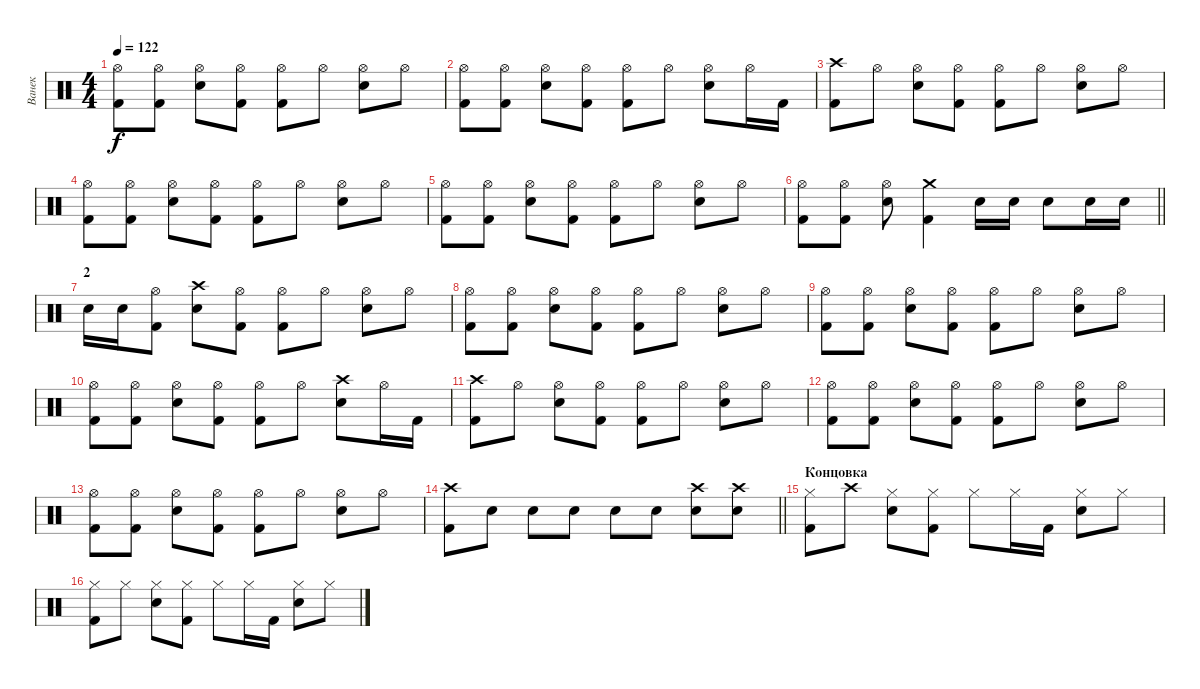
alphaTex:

\track ("Ванек" "Ванек") {instrument percussion}
\staff {score}
\articulation defaults
\ts (4 4)
\tempo 122
\clef neutral
\ks c
("Hi-Hat (open)" "Kick (hit) 2").8{dy f} ("Hi-Hat (open)" "Kick (hit) 2").8 ("Hi-Hat (open)" "Electric Snare (hit)").8 ("Hi-Hat (open)" "Kick (hit) 2").8 ("Hi-Hat (open)" "Kick (hit) 2").8 "Hi-Hat (open)".8 ("Hi-Hat (open)" "Electric Snare (hit)").8 "Hi-Hat (open)".8 |
("Hi-Hat (open)" "Kick (hit) 2").8 ("Hi-Hat (open)" "Kick (hit) 2").8 ("Hi-Hat (open)" "Electric Snare (hit)").8 ("Hi-Hat (open)" "Kick (hit) 2").8 ("Hi-Hat (open)" "Kick (hit) 2").8 "Hi-Hat (open)".8 ("Hi-Hat (open)" "Electric Snare (hit)").8 "Hi-Hat (open)".16 "Kick (hit) 2".16 |
("Crash high (hit)" "Kick (hit) 2").8 "Hi-Hat (open)".8 ("Hi-Hat (open)" "Electric Snare (hit)").8 ("Hi-Hat (open)" "Kick (hit) 2").8 ("Hi-Hat (open)" "Kick (hit) 2").8 "Hi-Hat (open)".8 ("Hi-Hat (open)" "Electric Snare (hit)").8 "Hi-Hat (open)".8 |
("Hi-Hat (open)" "Kick (hit) 2").8 ("Hi-Hat (open)" "Kick (hit) 2").8 ("Hi-Hat (open)" "Electric Snare (hit)").8 ("Hi-Hat (open)" "Kick (hit) 2").8 ("Hi-Hat (open)" "Kick (hit) 2").8 "Hi-Hat (open)".8 ("Hi-Hat (open)" "Electric Snare (hit)").8 "Hi-Hat (open)".8 |
("Hi-Hat (open)" "Kick (hit) 2").8 ("Hi-Hat (open)" "Kick (hit) 2").8 ("Hi-Hat (open)" "Electric Snare (hit)").8 ("Hi-Hat (open)" "Kick (hit) 2").8 ("Hi-Hat (open)" "Kick (hit) 2").8 "Hi-Hat (open)".8 ("Hi-Hat (open)" "Electric Snare (hit)").8 "Hi-Hat (open)".8 |
\barLineRight lightlight
("Hi-Hat (open)" "Kick (hit) 2").8 ("Hi-Hat (open)" "Kick (hit) 2").8 ("Hi-Hat (open)" "Electric Snare (hit)").8 ("Crash medium (hit)" "Kick (hit) 2").4 "Electric Snare (hit)".16 "Electric Snare (hit)".16 "Electric Snare (hit)".8 "Electric Snare (hit)".16 "Electric Snare (hit)".16 |
\section ("" "2")
"Electric Snare (hit)".16 "Electric Snare (hit)".16 ("Hi-Hat (open)" "Kick (hit) 2").8 ("Crash high (hit)" "Electric Snare (hit)").8 ("Hi-Hat (open)" "Kick (hit) 2").8 ("Hi-Hat (open)" "Kick (hit) 2").8 "Hi-Hat (open)".8 ("Hi-Hat (open)" "Electric Snare (hit)").8 "Hi-Hat (open)".8 |
("Hi-Hat (open)" "Kick (hit) 2").8 ("Hi-Hat (open)" "Kick (hit) 2").8 ("Hi-Hat (open)" "Electric Snare (hit)").8 ("Hi-Hat (open)" "Kick (hit) 2").8 ("Hi-Hat (open)" "Kick (hit) 2").8 "Hi-Hat (open)".8 ("Hi-Hat (open)" "Electric Snare (hit)").8 "Hi-Hat (open)".8 |
("Hi-Hat (open)" "Kick (hit) 2").8 ("Hi-Hat (open)" "Kick (hit) 2").8 ("Hi-Hat (open)" "Electric Snare (hit)").8 ("Hi-Hat (open)" "Kick (hit) 2").8 ("Hi-Hat (open)" "Kick (hit) 2").8 "Hi-Hat (open)".8 ("Hi-Hat (open)" "Electric Snare (hit)").8 "Hi-Hat (open)".8 |
("Hi-Hat (open)" "Kick (hit) 2").8 ("Hi-Hat (open)" "Kick (hit) 2").8 ("Hi-Hat (open)" "Electric Snare (hit)").8 ("Hi-Hat (open)" "Kick (hit) 2").8 ("Hi-Hat (open)" "Kick (hit) 2").8 "Hi-Hat (open)".8 ("Crash high (hit)" "Electric Snare (hit)").8 "Hi-Hat (open)".16 "Kick (hit) 2".16 |
("Crash high (hit)" "Kick (hit) 2").8 "Hi-Hat (open)".8 ("Hi-Hat (open)" "Electric Snare (hit)").8 ("Hi-Hat (open)" "Kick (hit) 2").8 ("Hi-Hat (open)" "Kick (hit) 2").8 "Hi-Hat (open)".8 ("Hi-Hat (open)" "Electric Snare (hit)").8 "Hi-Hat (open)".8 |
("Hi-Hat (open)" "Kick (hit) 2").8 ("Hi-Hat (open)" "Kick (hit) 2").8 ("Hi-Hat (open)" "Electric Snare (hit)").8 ("Hi-Hat (open)" "Kick (hit) 2").8 ("Hi-Hat (open)" "Kick (hit) 2").8 "Hi-Hat (open)".8 ("Hi-Hat (open)" "Electric Snare (hit)").8 "Hi-Hat (open)".8 |
("Hi-Hat (open)" "Kick (hit) 2").8 ("Hi-Hat (open)" "Kick (hit) 2").8 ("Hi-Hat (open)" "Electric Snare (hit)").8 ("Hi-Hat (open)" "Kick (hit) 2").8 ("Hi-Hat (open)" "Kick (hit) 2").8 "Hi-Hat (open)".8 ("Hi-Hat (open)" "Electric Snare (hit)").8 "Hi-Hat (open)".8 |
\barLineRight lightlight
("Crash high (hit)" "Kick (hit) 2").8 "Electric Snare (hit)".8 "Electric Snare (hit)".8 "Electric Snare (hit)".8 "Electric Snare (hit)".8 "Electric Snare (hit)".8 ("Crash high (hit)" "Electric Snare (hit)").8 ("Crash high (hit)" "Electric Snare (hit)").8 |
\section ("" "Концовка")
("Hi-Hat (closed)" "Kick (hit) 2").8 "Crash high (hit)".8 ("Hi-Hat (closed)" "Electric Snare (hit)").8 ("Hi-Hat (closed)" "Kick (hit) 2").8 "Hi-Hat (closed)".8 "Hi-Hat (closed)".16 "Kick (hit) 2".16 ("Hi-Hat (closed)" "Electric Snare (hit)").8 "Hi-Hat (closed)".8 |
("Hi-Hat (closed)" "Kick (hit) 2").8 "Hi-Hat (closed)".8 ("Hi-Hat (closed)" "Electric Snare (hit)").8 ("Hi-Hat (closed)" "Kick (hit) 2").8 "Hi-Hat (closed)".8 "Hi-Hat (closed)".16 "Kick (hit) 2".16 ("Hi-Hat (closed)" "Electric Snare (hit)").8 "Hi-Hat (closed)".8
